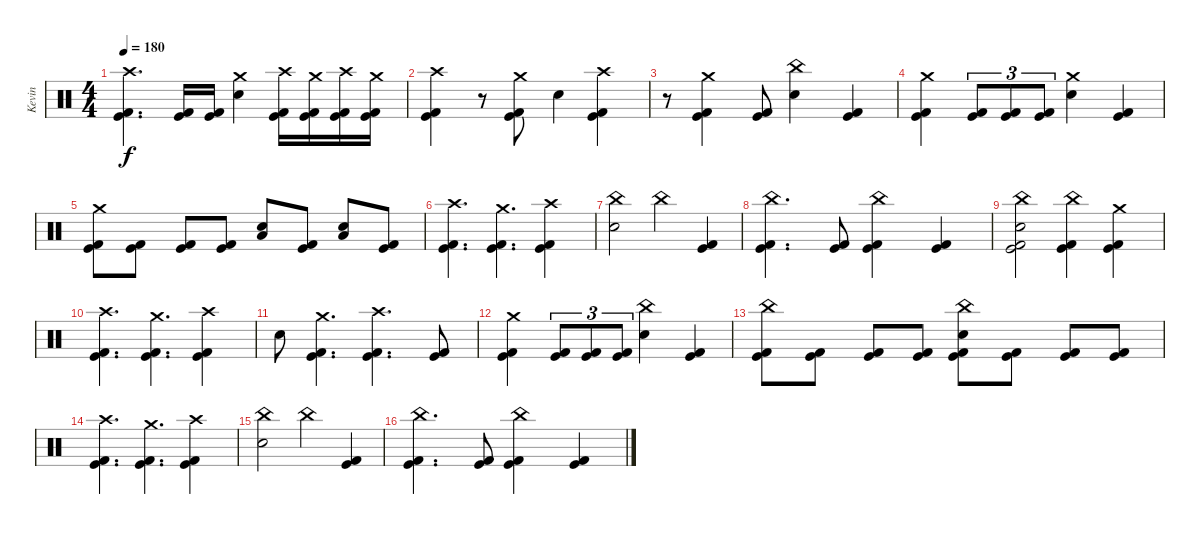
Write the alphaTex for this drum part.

\track ("Kevin" "Kevin") {instrument percussion}
\staff {score}
\articulation defaults
\ts (4 4)
\tempo 180
\clef neutral
\ks c
("Crash high (hit)" "Kick (hit)" "Kick (hit) 2").4{d dy f} ("Kick (hit)" "Kick (hit) 2").16 ("Kick (hit)" "Kick (hit) 2").16 ("Crash medium (hit)" "Electric Snare (hit)").4 ("Crash high (hit)" "Kick (hit)" "Kick (hit) 2").16 ("Crash medium (hit)" "Kick (hit)" "Kick (hit) 2").16 ("Crash high (hit)" "Kick (hit)" "Kick (hit) 2").16 ("Crash medium (hit)" "Kick (hit)" "Kick (hit) 2").16 |
("Crash high (hit)" "Kick (hit)" "Kick (hit) 2").4 r.8 ("Crash medium (hit)" "Kick (hit)" "Kick (hit) 2").8 "Electric Snare (hit)".4 ("Crash high (hit)" "Kick (hit)" "Kick (hit) 2").4 |
r.8 ("Crash medium (hit)" "Kick (hit)" "Kick (hit) 2").4 ("Kick (hit)" "Kick (hit) 2").8 ("China (hit)" "Electric Snare (hit)").4 ("Kick (hit)" "Kick (hit) 2").4 |
("Crash medium (hit)" "Kick (hit)" "Kick (hit) 2").4 ("Kick (hit)" "Kick (hit) 2").8{tu (3 2)} ("Kick (hit)" "Kick (hit) 2").8{tu (3 2)} ("Kick (hit)" "Kick (hit) 2").8{tu (3 2)} ("Crash medium (hit)" "Electric Snare (hit)").4 ("Kick (hit)" "Kick (hit) 2").4 |
("Crash medium (hit)" "Kick (hit)" "Kick (hit) 2").8 ("Kick (hit)" "Kick (hit) 2").8 ("Kick (hit)" "Kick (hit) 2").8 ("Kick (hit)" "Kick (hit) 2").8 ("Low Tom (hit)" "Electric Snare (hit)").8 ("Kick (hit)" "Kick (hit) 2").8 ("Low Tom (hit)" "Electric Snare (hit)").8 ("Kick (hit)" "Kick (hit) 2").8 |
("Crash high (hit)" "Kick (hit)" "Kick (hit) 2").4{d} ("Crash medium (hit)" "Kick (hit)" "Kick (hit) 2").4{d} ("Crash high (hit)" "Kick (hit)" "Kick (hit) 2").4 |
("China (hit)" "Electric Snare (hit)").2 "China (hit)".4 ("Kick (hit)" "Kick (hit) 2").4 |
("China (hit)" "Kick (hit)" "Kick (hit) 2").4{d} ("Kick (hit)" "Kick (hit) 2").8 ("China (hit)" "Kick (hit)" "Kick (hit) 2").4 ("Kick (hit)" "Kick (hit) 2").4 |
("China (hit)" "Electric Snare (hit)" "Kick (hit)" "Kick (hit) 2").2 ("China (hit)" "Kick (hit)" "Kick (hit) 2").4 ("Crash medium (hit)" "Kick (hit)" "Kick (hit) 2").4 |
("Crash high (hit)" "Kick (hit)" "Kick (hit) 2").4{d} ("Crash medium (hit)" "Kick (hit)" "Kick (hit) 2").4{d} ("Crash high (hit)" "Kick (hit)" "Kick (hit) 2").4 |
"Electric Snare (hit)".8 ("Crash medium (hit)" "Kick (hit)" "Kick (hit) 2").4{d} ("Crash high (hit)" "Kick (hit)" "Kick (hit) 2").4{d} ("Kick (hit)" "Kick (hit) 2").8 |
("Crash medium (hit)" "Kick (hit)" "Kick (hit) 2").4 ("Kick (hit)" "Kick (hit) 2").8{tu (3 2)} ("Kick (hit)" "Kick (hit) 2").8{tu (3 2)} ("Kick (hit)" "Kick (hit) 2").8{tu (3 2)} ("China (hit)" "Electric Snare (hit)").4 ("Kick (hit)" "Kick (hit) 2").4 |
("China (hit)" "Kick (hit)" "Kick (hit) 2").8 ("Kick (hit)" "Kick (hit) 2").8 ("Kick (hit)" "Kick (hit) 2").8 ("Kick (hit)" "Kick (hit) 2").8 ("China (hit)" "Electric Snare (hit)" "Kick (hit)" "Kick (hit) 2").8 ("Kick (hit)" "Kick (hit) 2").8 ("Kick (hit)" "Kick (hit) 2").8 ("Kick (hit)" "Kick (hit) 2").8 |
("Crash high (hit)" "Kick (hit)" "Kick (hit) 2").4{d} ("Crash medium (hit)" "Kick (hit)" "Kick (hit) 2").4{d} ("Crash high (hit)" "Kick (hit)" "Kick (hit) 2").4 |
("China (hit)" "Electric Snare (hit)").2 "China (hit)".4 ("Kick (hit)" "Kick (hit) 2").4 |
("China (hit)" "Kick (hit)" "Kick (hit) 2").4{d} ("Kick (hit)" "Kick (hit) 2").8 ("China (hit)" "Kick (hit)" "Kick (hit) 2").4 ("Kick (hit)" "Kick (hit) 2").4
